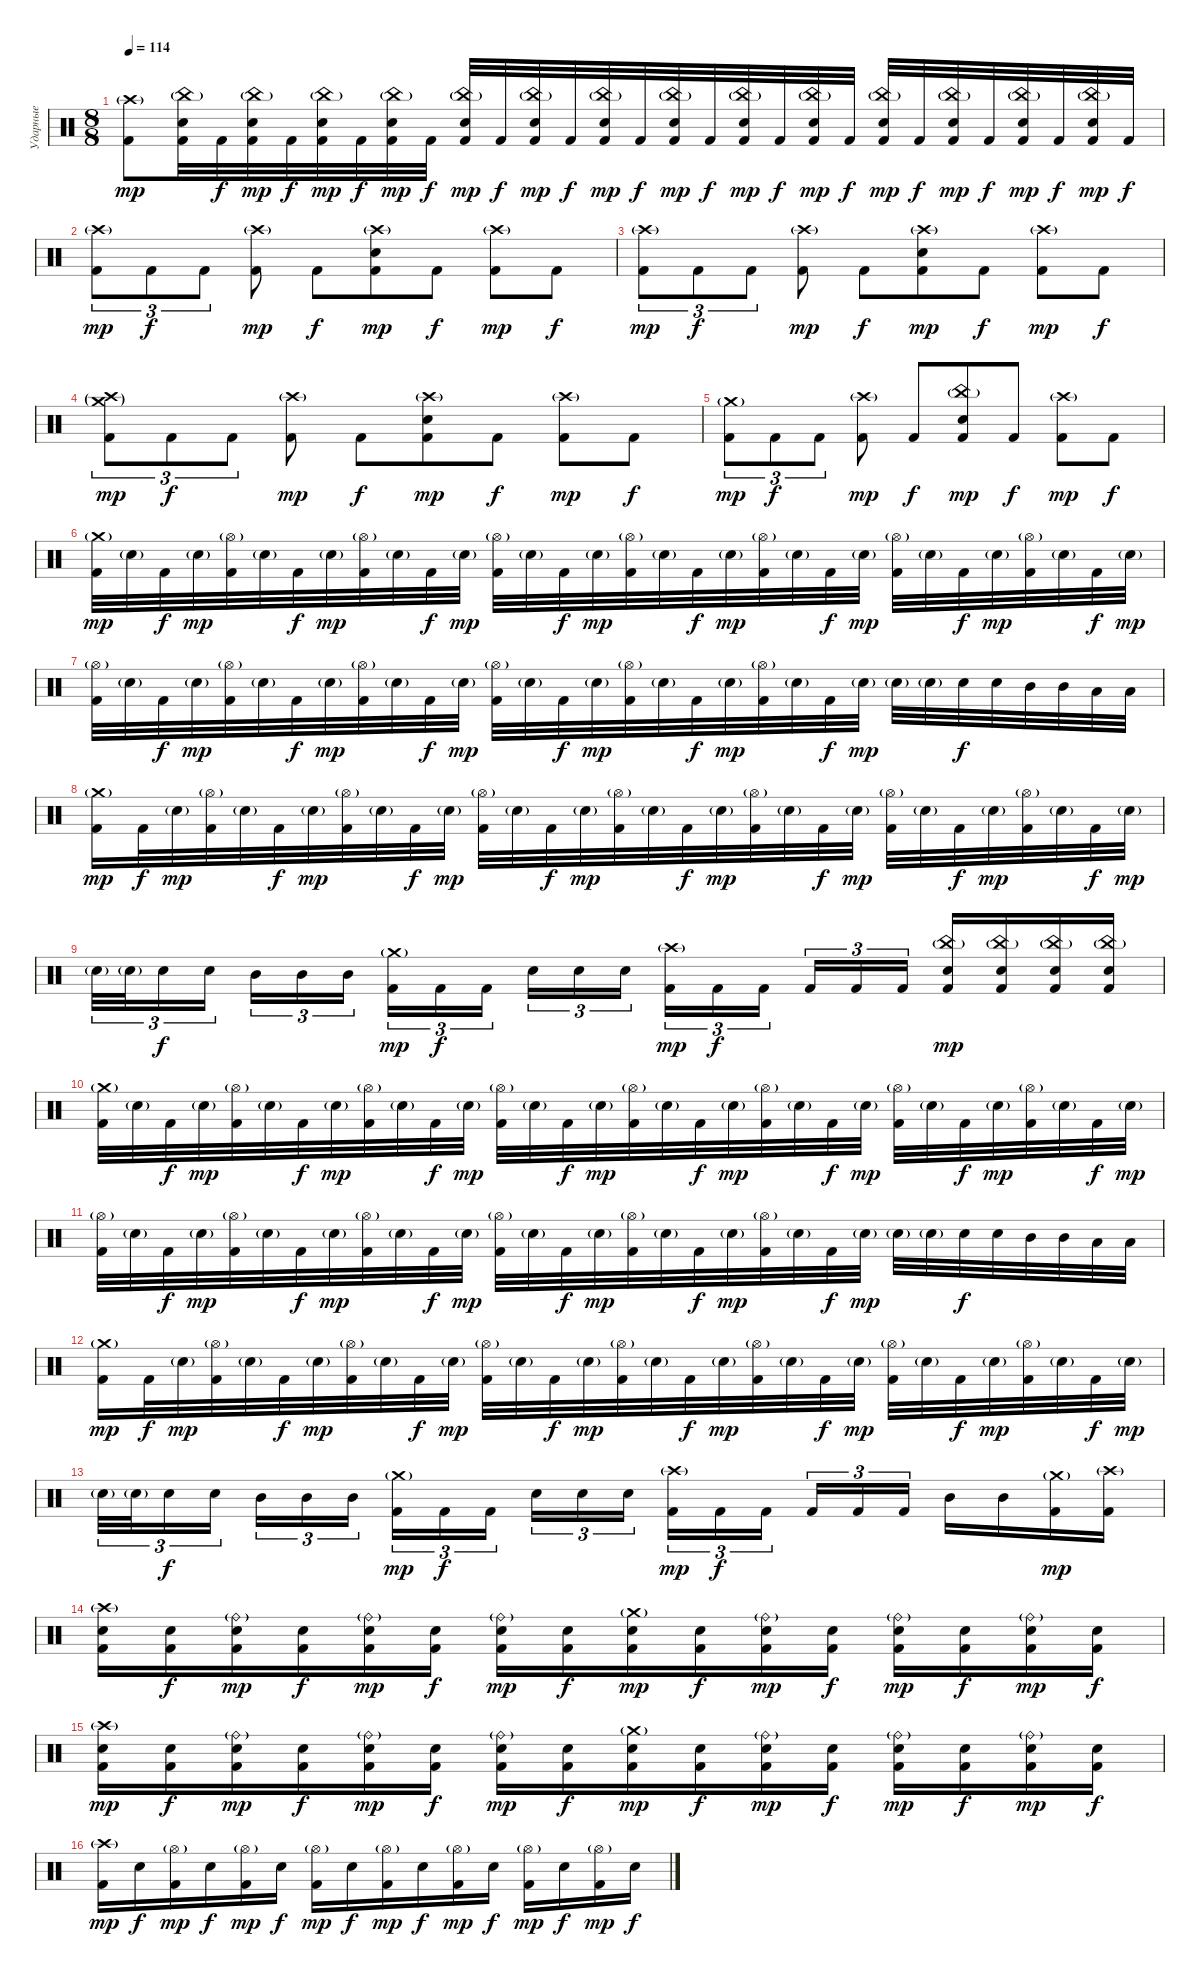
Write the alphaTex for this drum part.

\track ("Ударные" "Ударные") {instrument percussion}
\staff {score}
\articulation defaults
\ts (8 8)
\tempo 114
\clef neutral
\ks c
("Crash high (hit)"{g} "Kick (hit) 2").8{dy mp} ("China (hit)"{g} "Electric Snare (hit)" "Kick (hit) 2").32 "Kick (hit) 2".32{dy f} ("China (hit)"{g} "Electric Snare (hit)" "Kick (hit) 2").32{dy mp} "Kick (hit) 2".32{dy f} ("China (hit)"{g} "Electric Snare (hit)" "Kick (hit) 2").32{dy mp} "Kick (hit) 2".32{dy f} ("China (hit)"{g} "Electric Snare (hit)" "Kick (hit) 2").32{dy mp} "Kick (hit) 2".32{dy f} ("China (hit)"{g} "Electric Snare (hit)" "Kick (hit) 2").32{dy mp} "Kick (hit) 2".32{dy f} ("China (hit)"{g} "Electric Snare (hit)" "Kick (hit) 2").32{dy mp} "Kick (hit) 2".32{dy f} ("China (hit)"{g} "Electric Snare (hit)" "Kick (hit) 2").32{dy mp} "Kick (hit) 2".32{dy f} ("China (hit)"{g} "Electric Snare (hit)" "Kick (hit) 2").32{dy mp} "Kick (hit) 2".32{dy f} ("China (hit)"{g} "Electric Snare (hit)" "Kick (hit) 2").32{dy mp} "Kick (hit) 2".32{dy f} ("China (hit)"{g} "Electric Snare (hit)" "Kick (hit) 2").32{dy mp} "Kick (hit) 2".32{dy f} ("China (hit)"{g} "Electric Snare (hit)" "Kick (hit) 2").32{dy mp} "Kick (hit) 2".32{dy f} ("China (hit)"{g} "Electric Snare (hit)" "Kick (hit) 2").32{dy mp} "Kick (hit) 2".32{dy f} ("China (hit)"{g} "Electric Snare (hit)" "Kick (hit) 2").32{dy mp} "Kick (hit) 2".32{dy f} ("China (hit)"{g} "Electric Snare (hit)" "Kick (hit) 2").32{dy mp} "Kick (hit) 2".32{dy f} |
("Crash high (hit)"{g} "Kick (hit) 2").8{tu (3 2) dy mp} "Kick (hit) 2".8{tu (3 2) dy f} "Kick (hit) 2".8{tu (3 2)} ("Crash high (hit)"{g} "Kick (hit) 2").8{dy mp} "Kick (hit) 2".8{dy f} ("Crash high (hit)"{g} "Electric Snare (hit)" "Kick (hit) 2").8{dy mp} "Kick (hit) 2".8{dy f} ("Crash high (hit)"{g} "Kick (hit) 2").8{dy mp} "Kick (hit) 2".8{dy f} |
("Crash high (hit)"{g} "Kick (hit) 2").8{tu (3 2) dy mp} "Kick (hit) 2".8{tu (3 2) dy f} "Kick (hit) 2".8{tu (3 2)} ("Crash high (hit)"{g} "Kick (hit) 2").8{dy mp} "Kick (hit) 2".8{dy f} ("Crash high (hit)"{g} "Electric Snare (hit)" "Kick (hit) 2").8{dy mp} "Kick (hit) 2".8{dy f} ("Crash high (hit)"{g} "Kick (hit) 2").8{dy mp} "Kick (hit) 2".8{dy f} |
("Crash high (hit)"{g} "Crash medium (hit)"{g} "Kick (hit) 2").8{tu (3 2) dy mp} "Kick (hit) 2".8{tu (3 2) dy f} "Kick (hit) 2".8{tu (3 2)} ("Crash high (hit)"{g} "Kick (hit) 2").8{dy mp} "Kick (hit) 2".8{dy f} ("Crash high (hit)"{g} "Electric Snare (hit)" "Kick (hit) 2").8{dy mp} "Kick (hit) 2".8{dy f} ("Crash high (hit)"{g} "Kick (hit) 2").8{dy mp} "Kick (hit) 2".8{dy f} |
("Crash medium (hit)"{g} "Kick (hit) 2").8{tu (3 2) dy mp} "Kick (hit) 2".8{tu (3 2) dy f} "Kick (hit) 2".8{tu (3 2)} ("Crash high (hit)"{g} "Kick (hit) 2").8{dy mp} "Kick (hit) 2".8{dy f} ("China (hit)"{g} "Electric Snare (hit)" "Kick (hit) 2").8{dy mp} "Kick (hit) 2".8{dy f} ("Crash high (hit)"{g} "Kick (hit) 2").8{dy mp} "Kick (hit) 2".8{dy f} |
("Crash medium (hit)"{g} "Kick (hit) 2").32{dy mp} "Electric Snare (hit)"{g}.32 "Kick (hit) 2".32{dy f} "Electric Snare (hit)"{g}.32{dy mp} ("Hi-Hat (open)"{g} "Kick (hit) 2").32 "Electric Snare (hit)"{g}.32 "Kick (hit) 2".32{dy f} "Electric Snare (hit)"{g}.32{dy mp} ("Hi-Hat (open)"{g} "Kick (hit) 2").32 "Electric Snare (hit)"{g}.32 "Kick (hit) 2".32{dy f} "Electric Snare (hit)"{g}.32{dy mp} ("Hi-Hat (open)"{g} "Kick (hit) 2").32 "Electric Snare (hit)"{g}.32 "Kick (hit) 2".32{dy f} "Electric Snare (hit)"{g}.32{dy mp} ("Hi-Hat (open)"{g} "Kick (hit) 2").32 "Electric Snare (hit)"{g}.32 "Kick (hit) 2".32{dy f} "Electric Snare (hit)"{g}.32{dy mp} ("Hi-Hat (open)"{g} "Kick (hit) 2").32 "Electric Snare (hit)"{g}.32 "Kick (hit) 2".32{dy f} "Electric Snare (hit)"{g}.32{dy mp} ("Hi-Hat (open)"{g} "Kick (hit) 2").32 "Electric Snare (hit)"{g}.32 "Kick (hit) 2".32{dy f} "Electric Snare (hit)"{g}.32{dy mp} ("Hi-Hat (open)"{g} "Kick (hit) 2").32 "Electric Snare (hit)"{g}.32 "Kick (hit) 2".32{dy f} "Electric Snare (hit)"{g}.32{dy mp} |
("Hi-Hat (open)"{g} "Kick (hit) 2").32 "Electric Snare (hit)"{g}.32 "Kick (hit) 2".32{dy f} "Electric Snare (hit)"{g}.32{dy mp} ("Hi-Hat (open)"{g} "Kick (hit) 2").32 "Electric Snare (hit)"{g}.32 "Kick (hit) 2".32{dy f} "Electric Snare (hit)"{g}.32{dy mp} ("Hi-Hat (open)"{g} "Kick (hit) 2").32 "Electric Snare (hit)"{g}.32 "Kick (hit) 2".32{dy f} "Electric Snare (hit)"{g}.32{dy mp} ("Hi-Hat (open)"{g} "Kick (hit) 2").32 "Electric Snare (hit)"{g}.32 "Kick (hit) 2".32{dy f} "Electric Snare (hit)"{g}.32{dy mp} ("Hi-Hat (open)"{g} "Kick (hit) 2").32 "Electric Snare (hit)"{g}.32 "Kick (hit) 2".32{dy f} "Electric Snare (hit)"{g}.32{dy mp} ("Hi-Hat (open)"{g} "Kick (hit) 2").32 "Electric Snare (hit)"{g}.32 "Kick (hit) 2".32{dy f} "Electric Snare (hit)"{g}.32{dy mp} "Electric Snare (hit)"{g}.32 "Electric Snare (hit)"{g}.32 "Electric Snare (hit)".32{dy f} "Electric Snare (hit)".32 "Mid Tom (hit)".32 "Mid Tom (hit)".32 "Low Tom (hit)".32 "Low Tom (hit)".32 |
("Crash medium (hit)"{g} "Kick (hit) 2").16{dy mp} "Kick (hit) 2".32{dy f} "Electric Snare (hit)"{g}.32{dy mp} ("Hi-Hat (open)"{g} "Kick (hit) 2").32 "Electric Snare (hit)"{g}.32 "Kick (hit) 2".32{dy f} "Electric Snare (hit)"{g}.32{dy mp} ("Hi-Hat (open)"{g} "Kick (hit) 2").32 "Electric Snare (hit)"{g}.32 "Kick (hit) 2".32{dy f} "Electric Snare (hit)"{g}.32{dy mp} ("Hi-Hat (open)"{g} "Kick (hit) 2").32 "Electric Snare (hit)"{g}.32 "Kick (hit) 2".32{dy f} "Electric Snare (hit)"{g}.32{dy mp} ("Hi-Hat (open)"{g} "Kick (hit) 2").32 "Electric Snare (hit)"{g}.32 "Kick (hit) 2".32{dy f} "Electric Snare (hit)"{g}.32{dy mp} ("Hi-Hat (open)"{g} "Kick (hit) 2").32 "Electric Snare (hit)"{g}.32 "Kick (hit) 2".32{dy f} "Electric Snare (hit)"{g}.32{dy mp} ("Hi-Hat (open)"{g} "Kick (hit) 2").32 "Electric Snare (hit)"{g}.32 "Kick (hit) 2".32{dy f} "Electric Snare (hit)"{g}.32{dy mp} ("Hi-Hat (open)"{g} "Kick (hit) 2").32 "Electric Snare (hit)"{g}.32 "Kick (hit) 2".32{dy f} "Electric Snare (hit)"{g}.32{dy mp} |
"Electric Snare (hit)"{g}.32{tu (3 2)} "Electric Snare (hit)"{g}.32{tu (3 2)} "Electric Snare (hit)".16{tu (3 2) dy f} "Electric Snare (hit)".16{tu (3 2)} "Mid Tom (hit)".16{tu (3 2)} "Mid Tom (hit)".16{tu (3 2)} "Mid Tom (hit)".16{tu (3 2)} ("Crash medium (hit)"{g} "Kick (hit) 2").16{tu (3 2) dy mp} "Kick (hit) 2".16{tu (3 2) dy f} "Kick (hit) 2".16{tu (3 2)} "Electric Snare (hit)".16{tu (3 2)} "Electric Snare (hit)".16{tu (3 2)} "Electric Snare (hit)".16{tu (3 2)} ("Crash high (hit)"{g} "Kick (hit) 2").16{tu (3 2) dy mp} "Kick (hit) 2".16{tu (3 2) dy f} "Kick (hit) 2".16{tu (3 2)} "Kick (hit) 2".16{tu (3 2)} "Kick (hit) 2".16{tu (3 2)} "Kick (hit) 2".16{tu (3 2)} ("China (hit)"{g} "Electric Snare (hit)" "Kick (hit) 2").16{dy mp} ("China (hit)"{g} "Electric Snare (hit)" "Kick (hit) 2").16 ("China (hit)"{g} "Electric Snare (hit)" "Kick (hit) 2").16 ("China (hit)"{g} "Electric Snare (hit)" "Kick (hit) 2").16 |
("Crash medium (hit)"{g} "Kick (hit) 2").32 "Electric Snare (hit)"{g}.32 "Kick (hit) 2".32{dy f} "Electric Snare (hit)"{g}.32{dy mp} ("Hi-Hat (open)"{g} "Kick (hit) 2").32 "Electric Snare (hit)"{g}.32 "Kick (hit) 2".32{dy f} "Electric Snare (hit)"{g}.32{dy mp} ("Hi-Hat (open)"{g} "Kick (hit) 2").32 "Electric Snare (hit)"{g}.32 "Kick (hit) 2".32{dy f} "Electric Snare (hit)"{g}.32{dy mp} ("Hi-Hat (open)"{g} "Kick (hit) 2").32 "Electric Snare (hit)"{g}.32 "Kick (hit) 2".32{dy f} "Electric Snare (hit)"{g}.32{dy mp} ("Hi-Hat (open)"{g} "Kick (hit) 2").32 "Electric Snare (hit)"{g}.32 "Kick (hit) 2".32{dy f} "Electric Snare (hit)"{g}.32{dy mp} ("Hi-Hat (open)"{g} "Kick (hit) 2").32 "Electric Snare (hit)"{g}.32 "Kick (hit) 2".32{dy f} "Electric Snare (hit)"{g}.32{dy mp} ("Hi-Hat (open)"{g} "Kick (hit) 2").32 "Electric Snare (hit)"{g}.32 "Kick (hit) 2".32{dy f} "Electric Snare (hit)"{g}.32{dy mp} ("Hi-Hat (open)"{g} "Kick (hit) 2").32 "Electric Snare (hit)"{g}.32 "Kick (hit) 2".32{dy f} "Electric Snare (hit)"{g}.32{dy mp} |
("Hi-Hat (open)"{g} "Kick (hit) 2").32 "Electric Snare (hit)"{g}.32 "Kick (hit) 2".32{dy f} "Electric Snare (hit)"{g}.32{dy mp} ("Hi-Hat (open)"{g} "Kick (hit) 2").32 "Electric Snare (hit)"{g}.32 "Kick (hit) 2".32{dy f} "Electric Snare (hit)"{g}.32{dy mp} ("Hi-Hat (open)"{g} "Kick (hit) 2").32 "Electric Snare (hit)"{g}.32 "Kick (hit) 2".32{dy f} "Electric Snare (hit)"{g}.32{dy mp} ("Hi-Hat (open)"{g} "Kick (hit) 2").32 "Electric Snare (hit)"{g}.32 "Kick (hit) 2".32{dy f} "Electric Snare (hit)"{g}.32{dy mp} ("Hi-Hat (open)"{g} "Kick (hit) 2").32 "Electric Snare (hit)"{g}.32 "Kick (hit) 2".32{dy f} "Electric Snare (hit)"{g}.32{dy mp} ("Hi-Hat (open)"{g} "Kick (hit) 2").32 "Electric Snare (hit)"{g}.32 "Kick (hit) 2".32{dy f} "Electric Snare (hit)"{g}.32{dy mp} "Electric Snare (hit)"{g}.32 "Electric Snare (hit)"{g}.32 "Electric Snare (hit)".32{dy f} "Electric Snare (hit)".32 "Mid Tom (hit)".32 "Mid Tom (hit)".32 "Low Tom (hit)".32 "Low Tom (hit)".32 |
("Crash medium (hit)"{g} "Kick (hit) 2").16{dy mp} "Kick (hit) 2".32{dy f} "Electric Snare (hit)"{g}.32{dy mp} ("Hi-Hat (open)"{g} "Kick (hit) 2").32 "Electric Snare (hit)"{g}.32 "Kick (hit) 2".32{dy f} "Electric Snare (hit)"{g}.32{dy mp} ("Hi-Hat (open)"{g} "Kick (hit) 2").32 "Electric Snare (hit)"{g}.32 "Kick (hit) 2".32{dy f} "Electric Snare (hit)"{g}.32{dy mp} ("Hi-Hat (open)"{g} "Kick (hit) 2").32 "Electric Snare (hit)"{g}.32 "Kick (hit) 2".32{dy f} "Electric Snare (hit)"{g}.32{dy mp} ("Hi-Hat (open)"{g} "Kick (hit) 2").32 "Electric Snare (hit)"{g}.32 "Kick (hit) 2".32{dy f} "Electric Snare (hit)"{g}.32{dy mp} ("Hi-Hat (open)"{g} "Kick (hit) 2").32 "Electric Snare (hit)"{g}.32 "Kick (hit) 2".32{dy f} "Electric Snare (hit)"{g}.32{dy mp} ("Hi-Hat (open)"{g} "Kick (hit) 2").32 "Electric Snare (hit)"{g}.32 "Kick (hit) 2".32{dy f} "Electric Snare (hit)"{g}.32{dy mp} ("Hi-Hat (open)"{g} "Kick (hit) 2").32 "Electric Snare (hit)"{g}.32 "Kick (hit) 2".32{dy f} "Electric Snare (hit)"{g}.32{dy mp} |
"Electric Snare (hit)"{g}.32{tu (3 2)} "Electric Snare (hit)"{g}.32{tu (3 2)} "Electric Snare (hit)".16{tu (3 2) dy f} "Electric Snare (hit)".16{tu (3 2)} "Mid Tom (hit)".16{tu (3 2)} "Mid Tom (hit)".16{tu (3 2)} "Mid Tom (hit)".16{tu (3 2)} ("Crash medium (hit)"{g} "Kick (hit) 2").16{tu (3 2) dy mp} "Kick (hit) 2".16{tu (3 2) dy f} "Kick (hit) 2".16{tu (3 2)} "Electric Snare (hit)".16{tu (3 2)} "Electric Snare (hit)".16{tu (3 2)} "Electric Snare (hit)".16{tu (3 2)} ("Crash high (hit)"{g} "Kick (hit) 2").16{tu (3 2) dy mp} "Kick (hit) 2".16{tu (3 2) dy f} "Kick (hit) 2".16{tu (3 2)} "Kick (hit) 2".16{tu (3 2)} "Kick (hit) 2".16{tu (3 2)} "Kick (hit) 2".16{tu (3 2)} "Mid Tom (hit)".16 "Mid Tom (hit)".16 ("Crash medium (hit)"{g} "Kick (hit) 2").16{dy mp} ("Crash high (hit)"{g} "Kick (hit) 2").16 |
("Crash high (hit)"{g} "Electric Snare (hit)" "Kick (hit) 2").16 ("Electric Snare (hit)" "Kick (hit) 2").16{dy f} ("Ride (bell)"{g} "Electric Snare (hit)" "Kick (hit) 2").16{dy mp} ("Electric Snare (hit)" "Kick (hit) 2").16{dy f} ("Ride (bell)"{g} "Electric Snare (hit)" "Kick (hit) 2").16{dy mp} ("Electric Snare (hit)" "Kick (hit) 2").16{dy f} ("Ride (bell)"{g} "Electric Snare (hit)" "Kick (hit) 2").16{dy mp} ("Electric Snare (hit)" "Kick (hit) 2").16{dy f} ("Crash medium (hit)"{g} "Electric Snare (hit)" "Kick (hit) 2").16{dy mp} ("Electric Snare (hit)" "Kick (hit) 2").16{dy f} ("Ride (bell)"{g} "Electric Snare (hit)" "Kick (hit) 2").16{dy mp} ("Electric Snare (hit)" "Kick (hit) 2").16{dy f} ("Ride (bell)"{g} "Electric Snare (hit)" "Kick (hit) 2").16{dy mp} ("Electric Snare (hit)" "Kick (hit) 2").16{dy f} ("Ride (bell)"{g} "Electric Snare (hit)" "Kick (hit) 2").16{dy mp} ("Electric Snare (hit)" "Kick (hit) 2").16{dy f} |
("Crash high (hit)"{g} "Electric Snare (hit)" "Kick (hit) 2").16{dy mp} ("Electric Snare (hit)" "Kick (hit) 2").16{dy f} ("Ride (bell)"{g} "Electric Snare (hit)" "Kick (hit) 2").16{dy mp} ("Electric Snare (hit)" "Kick (hit) 2").16{dy f} ("Ride (bell)"{g} "Electric Snare (hit)" "Kick (hit) 2").16{dy mp} ("Electric Snare (hit)" "Kick (hit) 2").16{dy f} ("Ride (bell)"{g} "Electric Snare (hit)" "Kick (hit) 2").16{dy mp} ("Electric Snare (hit)" "Kick (hit) 2").16{dy f} ("Crash medium (hit)"{g} "Electric Snare (hit)" "Kick (hit) 2").16{dy mp} ("Electric Snare (hit)" "Kick (hit) 2").16{dy f} ("Ride (bell)"{g} "Electric Snare (hit)" "Kick (hit) 2").16{dy mp} ("Electric Snare (hit)" "Kick (hit) 2").16{dy f} ("Ride (bell)"{g} "Electric Snare (hit)" "Kick (hit) 2").16{dy mp} ("Electric Snare (hit)" "Kick (hit) 2").16{dy f} ("Ride (bell)"{g} "Electric Snare (hit)" "Kick (hit) 2").16{dy mp} ("Electric Snare (hit)" "Kick (hit) 2").16{dy f} |
("Crash high (hit)"{g} "Kick (hit) 2").16{dy mp} "Electric Snare (hit)".16{dy f} ("Hi-Hat (open)"{g} "Kick (hit) 2").16{dy mp} "Electric Snare (hit)".16{dy f} ("Hi-Hat (open)"{g} "Kick (hit) 2").16{dy mp} "Electric Snare (hit)".16{dy f} ("Hi-Hat (open)"{g} "Kick (hit) 2").16{dy mp} "Electric Snare (hit)".16{dy f} ("Hi-Hat (open)"{g} "Kick (hit) 2").16{dy mp} "Electric Snare (hit)".16{dy f} ("Hi-Hat (open)"{g} "Kick (hit) 2").16{dy mp} "Electric Snare (hit)".16{dy f} ("Hi-Hat (open)"{g} "Kick (hit) 2").16{dy mp} "Electric Snare (hit)".16{dy f} ("Hi-Hat (open)"{g} "Kick (hit) 2").16{dy mp} "Electric Snare (hit)".16{dy f}
